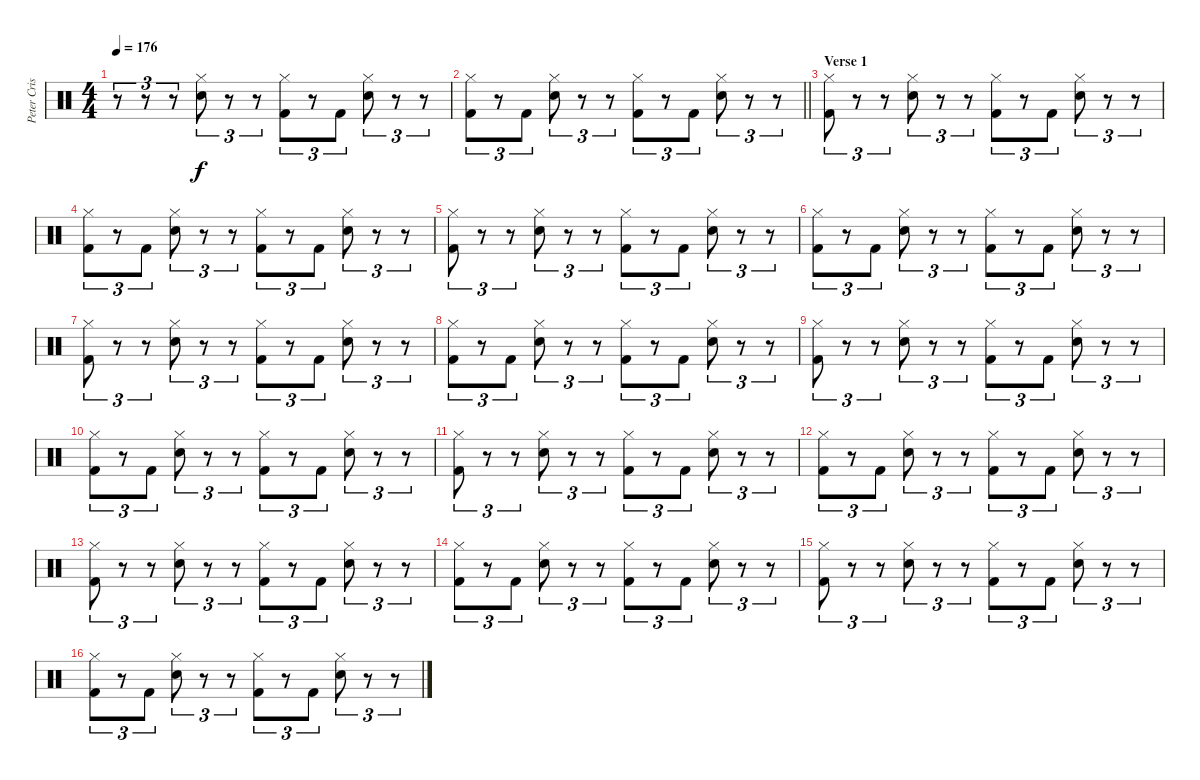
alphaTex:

\track ("Peter Criss" "Peter Cris") {instrument percussion}
\staff {score}
\articulation defaults
\ts (4 4)
\tempo 176
\clef neutral
\ks c
r.8{tu (3 2) dy f} r.8{tu (3 2)} r.8{tu (3 2)} ("Hi-Hat (closed)" "Electric Snare (hit)").8{tu (3 2)} r.8{tu (3 2)} r.8{tu (3 2)} ("Hi-Hat (closed)" "Kick (hit) 2").8{tu (3 2)} r.8{tu (3 2)} "Kick (hit) 2".8{tu (3 2)} ("Hi-Hat (closed)" "Electric Snare (hit)").8{tu (3 2)} r.8{tu (3 2)} r.8{tu (3 2)} |
\barLineRight lightlight
("Hi-Hat (closed)" "Kick (hit) 2").8{tu (3 2)} r.8{tu (3 2)} "Kick (hit) 2".8{tu (3 2)} ("Hi-Hat (closed)" "Electric Snare (hit)").8{tu (3 2)} r.8{tu (3 2)} r.8{tu (3 2)} ("Hi-Hat (closed)" "Kick (hit) 2").8{tu (3 2)} r.8{tu (3 2)} "Kick (hit) 2".8{tu (3 2)} ("Hi-Hat (closed)" "Electric Snare (hit)").8{tu (3 2)} r.8{tu (3 2)} r.8{tu (3 2)} |
\section ("" "Verse 1")
("Hi-Hat (closed)" "Kick (hit) 2").8{tu (3 2)} r.8{tu (3 2)} r.8{tu (3 2)} ("Hi-Hat (closed)" "Electric Snare (hit)").8{tu (3 2)} r.8{tu (3 2)} r.8{tu (3 2)} ("Hi-Hat (closed)" "Kick (hit) 2").8{tu (3 2)} r.8{tu (3 2)} "Kick (hit) 2".8{tu (3 2)} ("Hi-Hat (closed)" "Electric Snare (hit)").8{tu (3 2)} r.8{tu (3 2)} r.8{tu (3 2)} |
("Hi-Hat (closed)" "Kick (hit) 2").8{tu (3 2)} r.8{tu (3 2)} "Kick (hit) 2".8{tu (3 2)} ("Hi-Hat (closed)" "Electric Snare (hit)").8{tu (3 2)} r.8{tu (3 2)} r.8{tu (3 2)} ("Hi-Hat (closed)" "Kick (hit) 2").8{tu (3 2)} r.8{tu (3 2)} "Kick (hit) 2".8{tu (3 2)} ("Hi-Hat (closed)" "Electric Snare (hit)").8{tu (3 2)} r.8{tu (3 2)} r.8{tu (3 2)} |
("Hi-Hat (closed)" "Kick (hit) 2").8{tu (3 2)} r.8{tu (3 2)} r.8{tu (3 2)} ("Hi-Hat (closed)" "Electric Snare (hit)").8{tu (3 2)} r.8{tu (3 2)} r.8{tu (3 2)} ("Hi-Hat (closed)" "Kick (hit) 2").8{tu (3 2)} r.8{tu (3 2)} "Kick (hit) 2".8{tu (3 2)} ("Hi-Hat (closed)" "Electric Snare (hit)").8{tu (3 2)} r.8{tu (3 2)} r.8{tu (3 2)} |
("Hi-Hat (closed)" "Kick (hit) 2").8{tu (3 2)} r.8{tu (3 2)} "Kick (hit) 2".8{tu (3 2)} ("Hi-Hat (closed)" "Electric Snare (hit)").8{tu (3 2)} r.8{tu (3 2)} r.8{tu (3 2)} ("Hi-Hat (closed)" "Kick (hit) 2").8{tu (3 2)} r.8{tu (3 2)} "Kick (hit) 2".8{tu (3 2)} ("Hi-Hat (closed)" "Electric Snare (hit)").8{tu (3 2)} r.8{tu (3 2)} r.8{tu (3 2)} |
("Hi-Hat (closed)" "Kick (hit) 2").8{tu (3 2)} r.8{tu (3 2)} r.8{tu (3 2)} ("Hi-Hat (closed)" "Electric Snare (hit)").8{tu (3 2)} r.8{tu (3 2)} r.8{tu (3 2)} ("Hi-Hat (closed)" "Kick (hit) 2").8{tu (3 2)} r.8{tu (3 2)} "Kick (hit) 2".8{tu (3 2)} ("Hi-Hat (closed)" "Electric Snare (hit)").8{tu (3 2)} r.8{tu (3 2)} r.8{tu (3 2)} |
("Hi-Hat (closed)" "Kick (hit) 2").8{tu (3 2)} r.8{tu (3 2)} "Kick (hit) 2".8{tu (3 2)} ("Hi-Hat (closed)" "Electric Snare (hit)").8{tu (3 2)} r.8{tu (3 2)} r.8{tu (3 2)} ("Hi-Hat (closed)" "Kick (hit) 2").8{tu (3 2)} r.8{tu (3 2)} "Kick (hit) 2".8{tu (3 2)} ("Hi-Hat (closed)" "Electric Snare (hit)").8{tu (3 2)} r.8{tu (3 2)} r.8{tu (3 2)} |
("Hi-Hat (closed)" "Kick (hit) 2").8{tu (3 2)} r.8{tu (3 2)} r.8{tu (3 2)} ("Hi-Hat (closed)" "Electric Snare (hit)").8{tu (3 2)} r.8{tu (3 2)} r.8{tu (3 2)} ("Hi-Hat (closed)" "Kick (hit) 2").8{tu (3 2)} r.8{tu (3 2)} "Kick (hit) 2".8{tu (3 2)} ("Hi-Hat (closed)" "Electric Snare (hit)").8{tu (3 2)} r.8{tu (3 2)} r.8{tu (3 2)} |
("Hi-Hat (closed)" "Kick (hit) 2").8{tu (3 2)} r.8{tu (3 2)} "Kick (hit) 2".8{tu (3 2)} ("Hi-Hat (closed)" "Electric Snare (hit)").8{tu (3 2)} r.8{tu (3 2)} r.8{tu (3 2)} ("Hi-Hat (closed)" "Kick (hit) 2").8{tu (3 2)} r.8{tu (3 2)} "Kick (hit) 2".8{tu (3 2)} ("Hi-Hat (closed)" "Electric Snare (hit)").8{tu (3 2)} r.8{tu (3 2)} r.8{tu (3 2)} |
("Hi-Hat (closed)" "Kick (hit) 2").8{tu (3 2)} r.8{tu (3 2)} r.8{tu (3 2)} ("Hi-Hat (closed)" "Electric Snare (hit)").8{tu (3 2)} r.8{tu (3 2)} r.8{tu (3 2)} ("Hi-Hat (closed)" "Kick (hit) 2").8{tu (3 2)} r.8{tu (3 2)} "Kick (hit) 2".8{tu (3 2)} ("Hi-Hat (closed)" "Electric Snare (hit)").8{tu (3 2)} r.8{tu (3 2)} r.8{tu (3 2)} |
("Hi-Hat (closed)" "Kick (hit) 2").8{tu (3 2)} r.8{tu (3 2)} "Kick (hit) 2".8{tu (3 2)} ("Hi-Hat (closed)" "Electric Snare (hit)").8{tu (3 2)} r.8{tu (3 2)} r.8{tu (3 2)} ("Hi-Hat (closed)" "Kick (hit) 2").8{tu (3 2)} r.8{tu (3 2)} "Kick (hit) 2".8{tu (3 2)} ("Hi-Hat (closed)" "Electric Snare (hit)").8{tu (3 2)} r.8{tu (3 2)} r.8{tu (3 2)} |
("Hi-Hat (closed)" "Kick (hit) 2").8{tu (3 2)} r.8{tu (3 2)} r.8{tu (3 2)} ("Hi-Hat (closed)" "Electric Snare (hit)").8{tu (3 2)} r.8{tu (3 2)} r.8{tu (3 2)} ("Hi-Hat (closed)" "Kick (hit) 2").8{tu (3 2)} r.8{tu (3 2)} "Kick (hit) 2".8{tu (3 2)} ("Hi-Hat (closed)" "Electric Snare (hit)").8{tu (3 2)} r.8{tu (3 2)} r.8{tu (3 2)} |
("Hi-Hat (closed)" "Kick (hit) 2").8{tu (3 2)} r.8{tu (3 2)} "Kick (hit) 2".8{tu (3 2)} ("Hi-Hat (closed)" "Electric Snare (hit)").8{tu (3 2)} r.8{tu (3 2)} r.8{tu (3 2)} ("Hi-Hat (closed)" "Kick (hit) 2").8{tu (3 2)} r.8{tu (3 2)} "Kick (hit) 2".8{tu (3 2)} ("Hi-Hat (closed)" "Electric Snare (hit)").8{tu (3 2)} r.8{tu (3 2)} r.8{tu (3 2)} |
("Hi-Hat (closed)" "Kick (hit) 2").8{tu (3 2)} r.8{tu (3 2)} r.8{tu (3 2)} ("Hi-Hat (closed)" "Electric Snare (hit)").8{tu (3 2)} r.8{tu (3 2)} r.8{tu (3 2)} ("Hi-Hat (closed)" "Kick (hit) 2").8{tu (3 2)} r.8{tu (3 2)} "Kick (hit) 2".8{tu (3 2)} ("Hi-Hat (closed)" "Electric Snare (hit)").8{tu (3 2)} r.8{tu (3 2)} r.8{tu (3 2)} |
("Hi-Hat (closed)" "Kick (hit) 2").8{tu (3 2)} r.8{tu (3 2)} "Kick (hit) 2".8{tu (3 2)} ("Hi-Hat (closed)" "Electric Snare (hit)").8{tu (3 2)} r.8{tu (3 2)} r.8{tu (3 2)} ("Hi-Hat (closed)" "Kick (hit) 2").8{tu (3 2)} r.8{tu (3 2)} "Kick (hit) 2".8{tu (3 2)} ("Hi-Hat (closed)" "Electric Snare (hit)").8{tu (3 2)} r.8{tu (3 2)} r.8{tu (3 2)}
